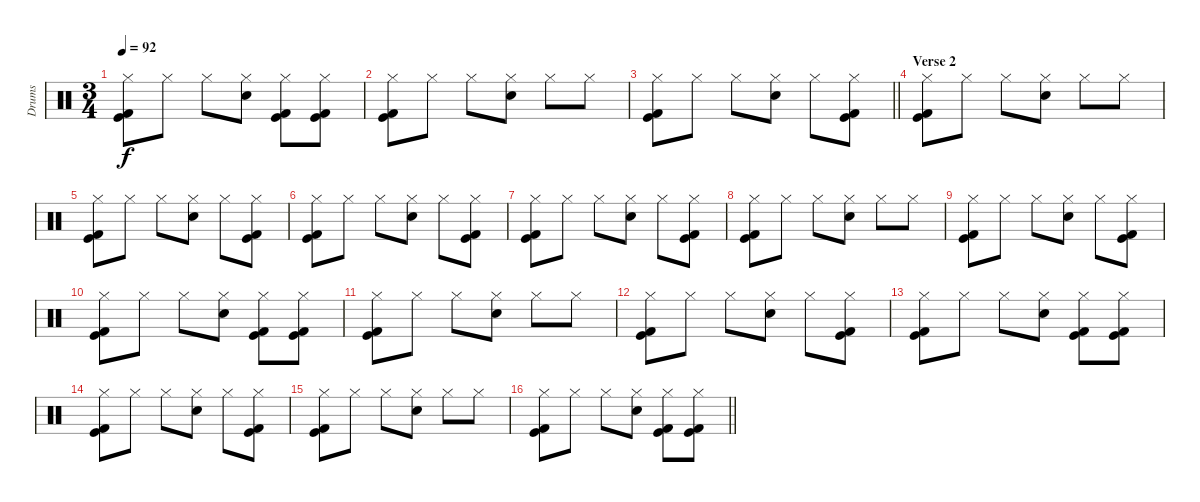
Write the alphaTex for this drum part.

\track ("Drums" "Drums") {instrument percussion}
\staff {score}
\articulation defaults
\ts (3 4)
\tempo 92
\clef neutral
\ks c
("Hi-Hat (closed)" "Kick (hit)" "Kick (hit) 2").8{dy f} "Hi-Hat (closed)".8 "Hi-Hat (closed)".8 ("Hi-Hat (closed)" "Electric Snare (hit)").8 ("Hi-Hat (closed)" "Kick (hit)" "Kick (hit) 2").8 ("Hi-Hat (closed)" "Kick (hit)" "Kick (hit) 2").8 |
("Hi-Hat (closed)" "Kick (hit)" "Kick (hit) 2").8 "Hi-Hat (closed)".8 "Hi-Hat (closed)".8 ("Hi-Hat (closed)" "Electric Snare (hit)").8 "Hi-Hat (closed)".8 "Hi-Hat (closed)".8 |
\barLineRight lightlight
("Hi-Hat (closed)" "Kick (hit)" "Kick (hit) 2").8 "Hi-Hat (closed)".8 "Hi-Hat (closed)".8 ("Hi-Hat (closed)" "Electric Snare (hit)").8 "Hi-Hat (closed)".8 ("Hi-Hat (closed)" "Kick (hit)" "Kick (hit) 2").8 |
\section ("" "Verse 2")
("Hi-Hat (closed)" "Kick (hit)" "Kick (hit) 2").8 "Hi-Hat (closed)".8 "Hi-Hat (closed)".8 ("Hi-Hat (closed)" "Electric Snare (hit)").8 "Hi-Hat (closed)".8 "Hi-Hat (closed)".8 |
("Hi-Hat (closed)" "Kick (hit)" "Kick (hit) 2").8 "Hi-Hat (closed)".8 "Hi-Hat (closed)".8 ("Hi-Hat (closed)" "Electric Snare (hit)").8 "Hi-Hat (closed)".8 ("Hi-Hat (closed)" "Kick (hit)" "Kick (hit) 2").8 |
("Hi-Hat (closed)" "Kick (hit)" "Kick (hit) 2").8 "Hi-Hat (closed)".8 "Hi-Hat (closed)".8 ("Hi-Hat (closed)" "Electric Snare (hit)").8 "Hi-Hat (closed)".8 ("Hi-Hat (closed)" "Kick (hit)" "Kick (hit) 2").8 |
("Hi-Hat (closed)" "Kick (hit)" "Kick (hit) 2").8 "Hi-Hat (closed)".8 "Hi-Hat (closed)".8 ("Hi-Hat (closed)" "Electric Snare (hit)").8 "Hi-Hat (closed)".8 ("Hi-Hat (closed)" "Kick (hit)" "Kick (hit) 2").8 |
("Hi-Hat (closed)" "Kick (hit)" "Kick (hit) 2").8 "Hi-Hat (closed)".8 "Hi-Hat (closed)".8 ("Hi-Hat (closed)" "Electric Snare (hit)").8 "Hi-Hat (closed)".8 "Hi-Hat (closed)".8 |
("Hi-Hat (closed)" "Kick (hit)" "Kick (hit) 2").8 "Hi-Hat (closed)".8 "Hi-Hat (closed)".8 ("Hi-Hat (closed)" "Electric Snare (hit)").8 "Hi-Hat (closed)".8 ("Hi-Hat (closed)" "Kick (hit)" "Kick (hit) 2").8 |
("Hi-Hat (closed)" "Kick (hit)" "Kick (hit) 2").8 "Hi-Hat (closed)".8 "Hi-Hat (closed)".8 ("Hi-Hat (closed)" "Electric Snare (hit)").8 ("Hi-Hat (closed)" "Kick (hit)" "Kick (hit) 2").8 ("Hi-Hat (closed)" "Kick (hit)" "Kick (hit) 2").8 |
("Hi-Hat (closed)" "Kick (hit)" "Kick (hit) 2").8 "Hi-Hat (closed)".8 "Hi-Hat (closed)".8 ("Hi-Hat (closed)" "Electric Snare (hit)").8 "Hi-Hat (closed)".8 "Hi-Hat (closed)".8 |
("Hi-Hat (closed)" "Kick (hit)" "Kick (hit) 2").8 "Hi-Hat (closed)".8 "Hi-Hat (closed)".8 ("Hi-Hat (closed)" "Electric Snare (hit)").8 "Hi-Hat (closed)".8 ("Hi-Hat (closed)" "Kick (hit)" "Kick (hit) 2").8 |
("Hi-Hat (closed)" "Kick (hit)" "Kick (hit) 2").8 "Hi-Hat (closed)".8 "Hi-Hat (closed)".8 ("Hi-Hat (closed)" "Electric Snare (hit)").8 ("Hi-Hat (closed)" "Kick (hit)" "Kick (hit) 2").8 ("Hi-Hat (closed)" "Kick (hit)" "Kick (hit) 2").8 |
("Hi-Hat (closed)" "Kick (hit)" "Kick (hit) 2").8 "Hi-Hat (closed)".8 "Hi-Hat (closed)".8 ("Hi-Hat (closed)" "Electric Snare (hit)").8 "Hi-Hat (closed)".8 ("Hi-Hat (closed)" "Kick (hit)" "Kick (hit) 2").8 |
("Hi-Hat (closed)" "Kick (hit)" "Kick (hit) 2").8 "Hi-Hat (closed)".8 "Hi-Hat (closed)".8 ("Hi-Hat (closed)" "Electric Snare (hit)").8 "Hi-Hat (closed)".8 "Hi-Hat (closed)".8 |
\barLineRight lightlight
("Hi-Hat (closed)" "Kick (hit)" "Kick (hit) 2").8 "Hi-Hat (closed)".8 "Hi-Hat (closed)".8 ("Hi-Hat (closed)" "Electric Snare (hit)").8 ("Hi-Hat (closed)" "Kick (hit)" "Kick (hit) 2").8 ("Hi-Hat (closed)" "Kick (hit)" "Kick (hit) 2").8
